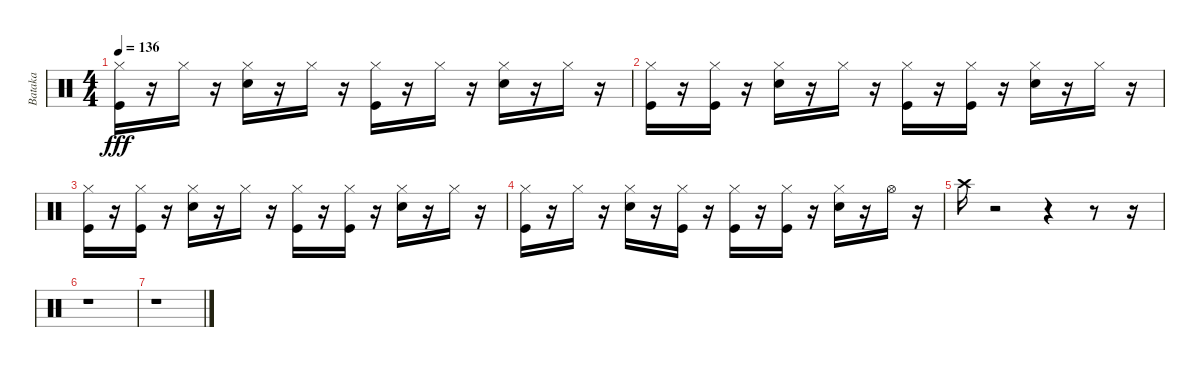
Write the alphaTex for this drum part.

\track ("Bataka" "Bataka") {instrument percussion}
\staff {score}
\articulation defaults
\ts (4 4)
\tempo 136
\clef neutral
\ks c
("Kick (hit)" "Hi-Hat (closed)").16{dy fff} r.16 "Hi-Hat (closed)".16 r.16 ("Snare (hit) 2" "Hi-Hat (closed)").16 r.16 "Hi-Hat (closed)".16 r.16 ("Kick (hit)" "Hi-Hat (closed)").16 r.16 "Hi-Hat (closed)".16 r.16 ("Snare (hit) 2" "Hi-Hat (closed)").16 r.16 "Hi-Hat (closed)".16 r.16 |
("Kick (hit)" "Hi-Hat (closed)").16 r.16 ("Kick (hit)" "Hi-Hat (closed)").16 r.16 ("Snare (hit) 2" "Hi-Hat (closed)").16 r.16 "Hi-Hat (closed)".16 r.16 ("Kick (hit)" "Hi-Hat (closed)").16 r.16 ("Kick (hit)" "Hi-Hat (closed)").16 r.16 ("Snare (hit) 2" "Hi-Hat (closed)").16 r.16 "Hi-Hat (closed)".16 r.16 |
("Kick (hit)" "Hi-Hat (closed)").16 r.16 ("Kick (hit)" "Hi-Hat (closed)").16 r.16 ("Snare (hit) 2" "Hi-Hat (closed)").16 r.16 "Hi-Hat (closed)".16 r.16 ("Kick (hit)" "Hi-Hat (closed)").16 r.16 ("Kick (hit)" "Hi-Hat (closed)").16 r.16 ("Snare (hit) 2" "Hi-Hat (closed)").16 r.16 "Hi-Hat (closed)".16 r.16 |
("Kick (hit)" "Hi-Hat (closed)").16 r.16 "Hi-Hat (closed)".16 r.16 ("Snare (hit) 2" "Hi-Hat (closed)").16 r.16 ("Kick (hit)" "Hi-Hat (closed)").16 r.16 ("Kick (hit)" "Hi-Hat (closed)").16 r.16 ("Kick (hit)" "Hi-Hat (closed)").16 r.16 ("Snare (hit) 2" "Hi-Hat (closed)").16 r.16 "Hi-Hat (open)".16 r.16 |
"Crash high (hit)".16 r.2 r.4 r.8 r.16 |
r.1 |
r.1
